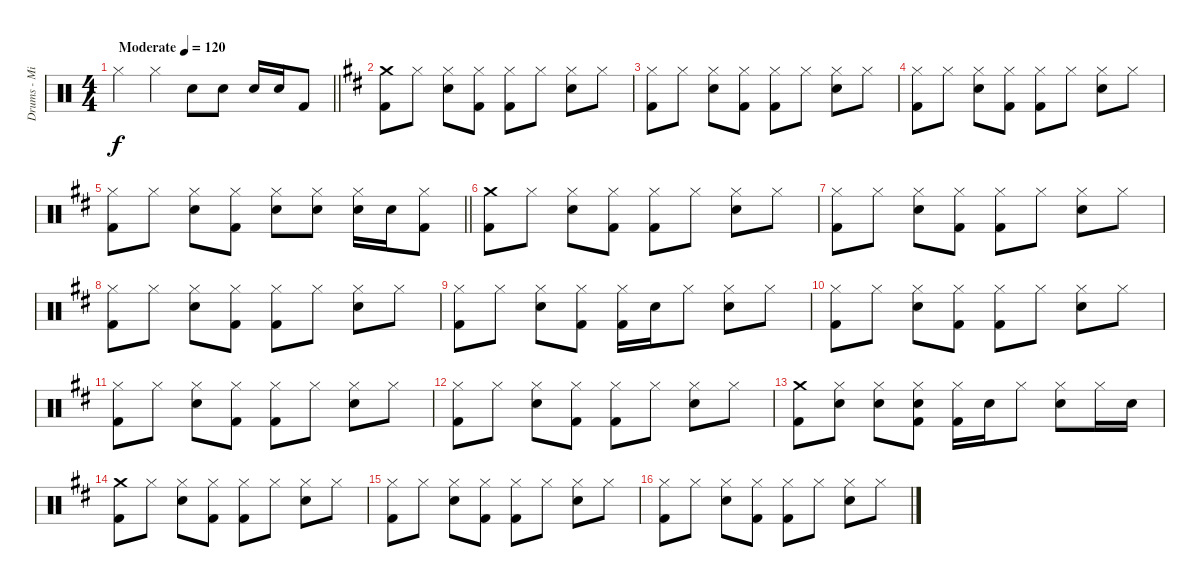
\track ("Drums - Minh-Thu" "Drums - Mi") {instrument percussion}
\staff {score}
\articulation defaults
\ts (4 4)
\tempo (120 "Moderate")
\clef neutral
\barLineRight lightlight
\ks c "Hi-Hat (closed)".4{dy f} "Hi-Hat (closed)".4 "Electric Snare (hit)".8 "Electric Snare (hit)".8 "Electric Snare (hit)".16 "Electric Snare (hit)".16 "Kick (hit) 2".8
|
\ks d
("Crash medium (hit)" "Kick (hit) 2").8 "Hi-Hat (closed)".8 ("Hi-Hat (closed)" "Electric Snare (hit)").8 ("Hi-Hat (closed)" "Kick (hit) 2").8 ("Hi-Hat (closed)" "Kick (hit) 2").8 "Hi-Hat (closed)".8 ("Hi-Hat (closed)" "Electric Snare (hit)").8 "Hi-Hat (closed)".8 |
("Hi-Hat (closed)" "Kick (hit) 2").8 "Hi-Hat (closed)".8 ("Hi-Hat (closed)" "Electric Snare (hit)").8 ("Hi-Hat (closed)" "Kick (hit) 2").8 ("Hi-Hat (closed)" "Kick (hit) 2").8 "Hi-Hat (closed)".8 ("Hi-Hat (closed)" "Electric Snare (hit)").8 "Hi-Hat (closed)".8 |
("Hi-Hat (closed)" "Kick (hit) 2").8 "Hi-Hat (closed)".8 ("Hi-Hat (closed)" "Electric Snare (hit)").8 ("Hi-Hat (closed)" "Kick (hit) 2").8 ("Hi-Hat (closed)" "Kick (hit) 2").8 "Hi-Hat (closed)".8 ("Hi-Hat (closed)" "Electric Snare (hit)").8 "Hi-Hat (closed)".8 |
\barLineRight lightlight
("Hi-Hat (closed)" "Kick (hit) 2").8 "Hi-Hat (closed)".8 ("Hi-Hat (closed)" "Electric Snare (hit)").8 ("Hi-Hat (closed)" "Kick (hit) 2").8 ("Hi-Hat (closed)" "Electric Snare (hit)").8 ("Hi-Hat (closed)" "Electric Snare (hit)").8 ("Hi-Hat (closed)" "Electric Snare (hit)").16 "Electric Snare (hit)".16 ("Hi-Hat (closed)" "Kick (hit) 2").8 |
("Crash medium (hit)" "Kick (hit) 2").8 "Hi-Hat (closed)".8 ("Hi-Hat (closed)" "Electric Snare (hit)").8 ("Hi-Hat (closed)" "Kick (hit) 2").8 ("Hi-Hat (closed)" "Kick (hit) 2").8 "Hi-Hat (closed)".8 ("Hi-Hat (closed)" "Electric Snare (hit)").8 "Hi-Hat (closed)".8 |
("Hi-Hat (closed)" "Kick (hit) 2").8 "Hi-Hat (closed)".8 ("Hi-Hat (closed)" "Electric Snare (hit)").8 ("Hi-Hat (closed)" "Kick (hit) 2").8 ("Hi-Hat (closed)" "Kick (hit) 2").8 "Hi-Hat (closed)".8 ("Hi-Hat (closed)" "Electric Snare (hit)").8 "Hi-Hat (closed)".8 |
("Hi-Hat (closed)" "Kick (hit) 2").8 "Hi-Hat (closed)".8 ("Hi-Hat (closed)" "Electric Snare (hit)").8 ("Hi-Hat (closed)" "Kick (hit) 2").8 ("Hi-Hat (closed)" "Kick (hit) 2").8 "Hi-Hat (closed)".8 ("Hi-Hat (closed)" "Electric Snare (hit)").8 "Hi-Hat (closed)".8 |
("Hi-Hat (closed)" "Kick (hit) 2").8 "Hi-Hat (closed)".8 ("Hi-Hat (closed)" "Electric Snare (hit)").8 ("Hi-Hat (closed)" "Kick (hit) 2").8 ("Hi-Hat (closed)" "Kick (hit) 2").16 "Electric Snare (hit)".16 "Hi-Hat (closed)".8 ("Hi-Hat (closed)" "Electric Snare (hit)").8 "Hi-Hat (closed)".8 |
("Hi-Hat (closed)" "Kick (hit) 2").8 "Hi-Hat (closed)".8 ("Hi-Hat (closed)" "Electric Snare (hit)").8 ("Hi-Hat (closed)" "Kick (hit) 2").8 ("Hi-Hat (closed)" "Kick (hit) 2").8 "Hi-Hat (closed)".8 ("Hi-Hat (closed)" "Electric Snare (hit)").8 "Hi-Hat (closed)".8 |
("Hi-Hat (closed)" "Kick (hit) 2").8 "Hi-Hat (closed)".8 ("Hi-Hat (closed)" "Electric Snare (hit)").8 ("Hi-Hat (closed)" "Kick (hit) 2").8 ("Hi-Hat (closed)" "Kick (hit) 2").8 "Hi-Hat (closed)".8 ("Hi-Hat (closed)" "Electric Snare (hit)").8 "Hi-Hat (closed)".8 |
("Hi-Hat (closed)" "Kick (hit) 2").8 "Hi-Hat (closed)".8 ("Hi-Hat (closed)" "Electric Snare (hit)").8 ("Hi-Hat (closed)" "Kick (hit) 2").8 ("Hi-Hat (closed)" "Kick (hit) 2").8 "Hi-Hat (closed)".8 ("Hi-Hat (closed)" "Electric Snare (hit)").8 "Hi-Hat (closed)".8 |
("Crash medium (hit)" "Kick (hit) 2").8 ("Hi-Hat (closed)" "Electric Snare (hit)").8 ("Hi-Hat (closed)" "Electric Snare (hit)").8 ("Hi-Hat (closed)" "Electric Snare (hit)" "Kick (hit) 2").8 ("Hi-Hat (closed)" "Kick (hit) 2").16 "Electric Snare (hit)".16 "Hi-Hat (closed)".8 ("Hi-Hat (closed)" "Electric Snare (hit)").8 "Hi-Hat (closed)".16 "Electric Snare (hit)".16 |
("Crash medium (hit)" "Kick (hit) 2").8 "Hi-Hat (closed)".8 ("Hi-Hat (closed)" "Electric Snare (hit)").8 ("Hi-Hat (closed)" "Kick (hit) 2").8 ("Hi-Hat (closed)" "Kick (hit) 2").8 "Hi-Hat (closed)".8 ("Hi-Hat (closed)" "Electric Snare (hit)").8 "Hi-Hat (closed)".8 |
("Hi-Hat (closed)" "Kick (hit) 2").8 "Hi-Hat (closed)".8 ("Hi-Hat (closed)" "Electric Snare (hit)").8 ("Hi-Hat (closed)" "Kick (hit) 2").8 ("Hi-Hat (closed)" "Kick (hit) 2").8 "Hi-Hat (closed)".8 ("Hi-Hat (closed)" "Electric Snare (hit)").8 "Hi-Hat (closed)".8 |
("Hi-Hat (closed)" "Kick (hit) 2").8 "Hi-Hat (closed)".8 ("Hi-Hat (closed)" "Electric Snare (hit)").8 ("Hi-Hat (closed)" "Kick (hit) 2").8 ("Hi-Hat (closed)" "Kick (hit) 2").8 "Hi-Hat (closed)".8 ("Hi-Hat (closed)" "Electric Snare (hit)").8 "Hi-Hat (closed)".8
